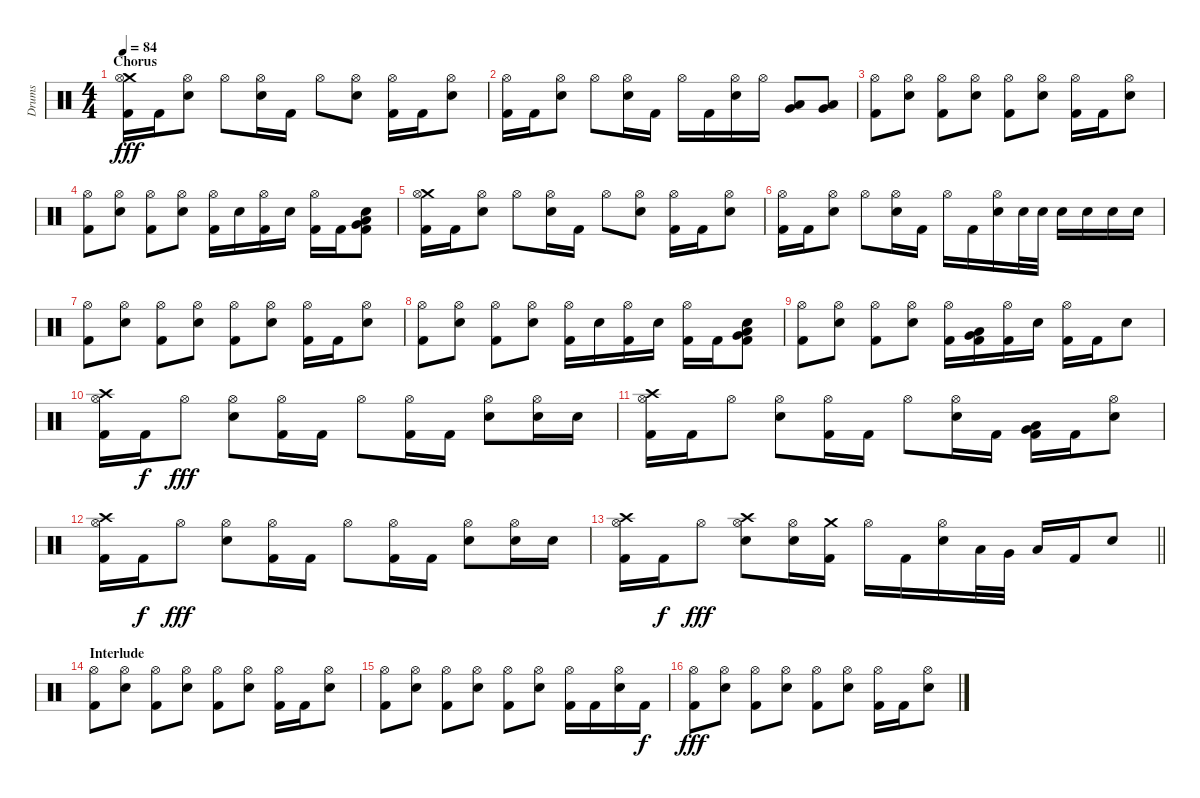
\track ("Drums" "Drums") {instrument percussion}
\staff {score}
\articulation defaults
\ts (4 4)
\section ("" "Chorus")
\tempo 84
\clef neutral
\ks c
("Crash medium (hit)" "Hi-Hat (open)" "Kick (hit) 2").16{dy fff} "Kick (hit) 2".16 ("Hi-Hat (open)" "Electric Snare (hit)").8 "Hi-Hat (open)".8 ("Hi-Hat (open)" "Electric Snare (hit)").16 "Kick (hit) 2".16 "Hi-Hat (open)".8 ("Hi-Hat (open)" "Electric Snare (hit)").8 ("Hi-Hat (open)" "Kick (hit) 2").16 "Kick (hit) 2".16 ("Hi-Hat (open)" "Electric Snare (hit)").8 |
("Hi-Hat (open)" "Kick (hit) 2").16 "Kick (hit) 2".16 ("Hi-Hat (open)" "Electric Snare (hit)").8 "Hi-Hat (open)".8 ("Hi-Hat (open)" "Electric Snare (hit)").16 "Kick (hit) 2".16 "Hi-Hat (open)".16 "Kick (hit) 2".16 ("Hi-Hat (open)" "Electric Snare (hit)").16 "Hi-Hat (open)".16 ("Very Low Tom (hit)" "Low Tom (hit)").8 ("Low Floor Tom (hit)" "Very Low Tom (hit)").8 |
("Hi-Hat (open)" "Kick (hit) 2").8 ("Hi-Hat (open)" "Electric Snare (hit)").8 ("Hi-Hat (open)" "Kick (hit) 2").8 ("Hi-Hat (open)" "Electric Snare (hit)").8 ("Hi-Hat (open)" "Kick (hit) 2").8 ("Hi-Hat (open)" "Electric Snare (hit)").8 ("Hi-Hat (open)" "Kick (hit) 2").16 "Kick (hit) 2".16 ("Hi-Hat (open)" "Electric Snare (hit)").8 |
("Hi-Hat (open)" "Kick (hit) 2").8 ("Hi-Hat (open)" "Electric Snare (hit)").8 ("Hi-Hat (open)" "Kick (hit) 2").8 ("Hi-Hat (open)" "Electric Snare (hit)").8 ("Hi-Hat (open)" "Kick (hit) 2").16 "Electric Snare (hit)".16 ("Hi-Hat (open)" "Kick (hit) 2").16 "Electric Snare (hit)".16 ("Hi-Hat (open)" "Kick (hit) 2").16 "Kick (hit) 2".16 ("Electric Snare (hit)" "Very Low Tom (hit)" "Low Tom (hit)" "Kick (hit) 2").8 |
("Crash medium (hit)" "Hi-Hat (open)" "Kick (hit) 2").16 "Kick (hit) 2".16 ("Hi-Hat (open)" "Electric Snare (hit)").8 "Hi-Hat (open)".8 ("Hi-Hat (open)" "Electric Snare (hit)").16 "Kick (hit) 2".16 "Hi-Hat (open)".8 ("Hi-Hat (open)" "Electric Snare (hit)").8 ("Hi-Hat (open)" "Kick (hit) 2").16 "Kick (hit) 2".16 ("Hi-Hat (open)" "Electric Snare (hit)").8 |
("Hi-Hat (open)" "Kick (hit) 2").16 "Kick (hit) 2".16 ("Hi-Hat (open)" "Electric Snare (hit)").8 "Hi-Hat (open)".8 ("Hi-Hat (open)" "Electric Snare (hit)").16 "Kick (hit) 2".16 "Hi-Hat (open)".16 "Kick (hit) 2".16 ("Hi-Hat (open)" "Electric Snare (hit)").16 "Electric Snare (hit)".32 "Electric Snare (hit)".32 "Electric Snare (hit)".16 "Electric Snare (hit)".16 "Electric Snare (hit)".16 "Electric Snare (hit)".16 |
("Hi-Hat (open)" "Kick (hit) 2").8 ("Hi-Hat (open)" "Electric Snare (hit)").8 ("Hi-Hat (open)" "Kick (hit) 2").8 ("Hi-Hat (open)" "Electric Snare (hit)").8 ("Hi-Hat (open)" "Kick (hit) 2").8 ("Hi-Hat (open)" "Electric Snare (hit)").8 ("Hi-Hat (open)" "Kick (hit) 2").16 "Kick (hit) 2".16 ("Hi-Hat (open)" "Electric Snare (hit)").8 |
("Hi-Hat (open)" "Kick (hit) 2").8 ("Hi-Hat (open)" "Electric Snare (hit)").8 ("Hi-Hat (open)" "Kick (hit) 2").8 ("Hi-Hat (open)" "Electric Snare (hit)").8 ("Hi-Hat (open)" "Kick (hit) 2").16 "Electric Snare (hit)".16 ("Hi-Hat (open)" "Kick (hit) 2").16 "Electric Snare (hit)".16 ("Hi-Hat (open)" "Kick (hit) 2").16 "Kick (hit) 2".16 ("Electric Snare (hit)" "Very Low Tom (hit)" "Low Tom (hit)" "Kick (hit) 2").8 |
("Hi-Hat (open)" "Kick (hit) 2").8 ("Hi-Hat (open)" "Electric Snare (hit)").8 ("Hi-Hat (open)" "Kick (hit) 2").8 ("Hi-Hat (open)" "Electric Snare (hit)").8 ("Hi-Hat (open)" "Kick (hit) 2").16 ("Very Low Tom (hit)" "Low Tom (hit)" "Kick (hit) 2").16 ("Hi-Hat (open)" "Kick (hit) 2").16 "Electric Snare (hit)".16 ("Hi-Hat (open)" "Kick (hit) 2").16 "Kick (hit) 2".16 "Electric Snare (hit)".8 |
("Crash high (hit)" "Hi-Hat (open)" "Kick (hit) 2").16 "Kick (hit) 2".16{dy f} "Hi-Hat (open)".8{dy fff} ("Hi-Hat (open)" "Electric Snare (hit)").8 ("Hi-Hat (open)" "Kick (hit) 2").16 "Kick (hit) 2".16 "Hi-Hat (open)".8 ("Hi-Hat (open)" "Kick (hit) 2").16 "Kick (hit) 2".16 ("Hi-Hat (open)" "Electric Snare (hit)").8 ("Hi-Hat (open)" "Electric Snare (hit)").16 "Electric Snare (hit)".16 |
("Crash high (hit)" "Hi-Hat (open)" "Kick (hit) 2").16 "Kick (hit) 2".16 "Hi-Hat (open)".8 ("Hi-Hat (open)" "Electric Snare (hit)").8 ("Hi-Hat (open)" "Kick (hit) 2").16 "Kick (hit) 2".16 "Hi-Hat (open)".8 ("Hi-Hat (open)" "Electric Snare (hit)").16 "Kick (hit) 2".16 ("Very Low Tom (hit)" "Low Tom (hit)" "Kick (hit) 2").16 "Kick (hit) 2".16 ("Hi-Hat (open)" "Electric Snare (hit)").8 |
("Crash high (hit)" "Hi-Hat (open)" "Kick (hit) 2").16 "Kick (hit) 2".16{dy f} "Hi-Hat (open)".8{dy fff} ("Hi-Hat (open)" "Electric Snare (hit)").8 ("Hi-Hat (open)" "Kick (hit) 2").16 "Kick (hit) 2".16 "Hi-Hat (open)".8 ("Hi-Hat (open)" "Kick (hit) 2").16 "Kick (hit) 2".16 ("Hi-Hat (open)" "Electric Snare (hit)").8 ("Hi-Hat (open)" "Electric Snare (hit)").16 "Electric Snare (hit)".16 |
\barLineRight lightlight
("Crash high (hit)" "Hi-Hat (open)" "Kick (hit) 2").16 "Kick (hit) 2".16{dy f} "Hi-Hat (open)".8{dy fff} ("Crash high (hit)" "Hi-Hat (open)" "Electric Snare (hit)").8 ("Hi-Hat (open)" "Electric Snare (hit)").16 ("Crash medium (hit)" "Kick (hit) 2").16 "Hi-Hat (open)".16 "Kick (hit) 2".16 ("Hi-Hat (open)" "Electric Snare (hit)").16 "Low Tom (hit)".32 "Very Low Tom (hit)".32 "Low Floor Tom (hit)".16 "Kick (hit) 2".16 "Electric Snare (hit)".8 |
\section ("" "Interlude")
("Hi-Hat (open)" "Kick (hit) 2").8 ("Hi-Hat (open)" "Electric Snare (hit)").8 ("Hi-Hat (open)" "Kick (hit) 2").8 ("Hi-Hat (open)" "Electric Snare (hit)").8 ("Hi-Hat (open)" "Kick (hit) 2").8 ("Hi-Hat (open)" "Electric Snare (hit)").8 ("Hi-Hat (open)" "Kick (hit) 2").16 "Kick (hit) 2".16 ("Hi-Hat (open)" "Electric Snare (hit)").8 |
("Hi-Hat (open)" "Kick (hit) 2").8 ("Hi-Hat (open)" "Electric Snare (hit)").8 ("Hi-Hat (open)" "Kick (hit) 2").8 ("Hi-Hat (open)" "Electric Snare (hit)").8 ("Hi-Hat (open)" "Kick (hit) 2").8 ("Hi-Hat (open)" "Electric Snare (hit)").8 ("Hi-Hat (open)" "Kick (hit) 2").16 "Kick (hit) 2".16 ("Hi-Hat (open)" "Electric Snare (hit)").16 "Kick (hit) 2".16{dy f} |
("Hi-Hat (open)" "Kick (hit) 2").8{dy fff} ("Hi-Hat (open)" "Electric Snare (hit)").8 ("Hi-Hat (open)" "Kick (hit) 2").8 ("Hi-Hat (open)" "Electric Snare (hit)").8 ("Hi-Hat (open)" "Kick (hit) 2").8 ("Hi-Hat (open)" "Electric Snare (hit)").8 ("Hi-Hat (open)" "Kick (hit) 2").16 "Kick (hit) 2".16 ("Hi-Hat (open)" "Electric Snare (hit)").8
